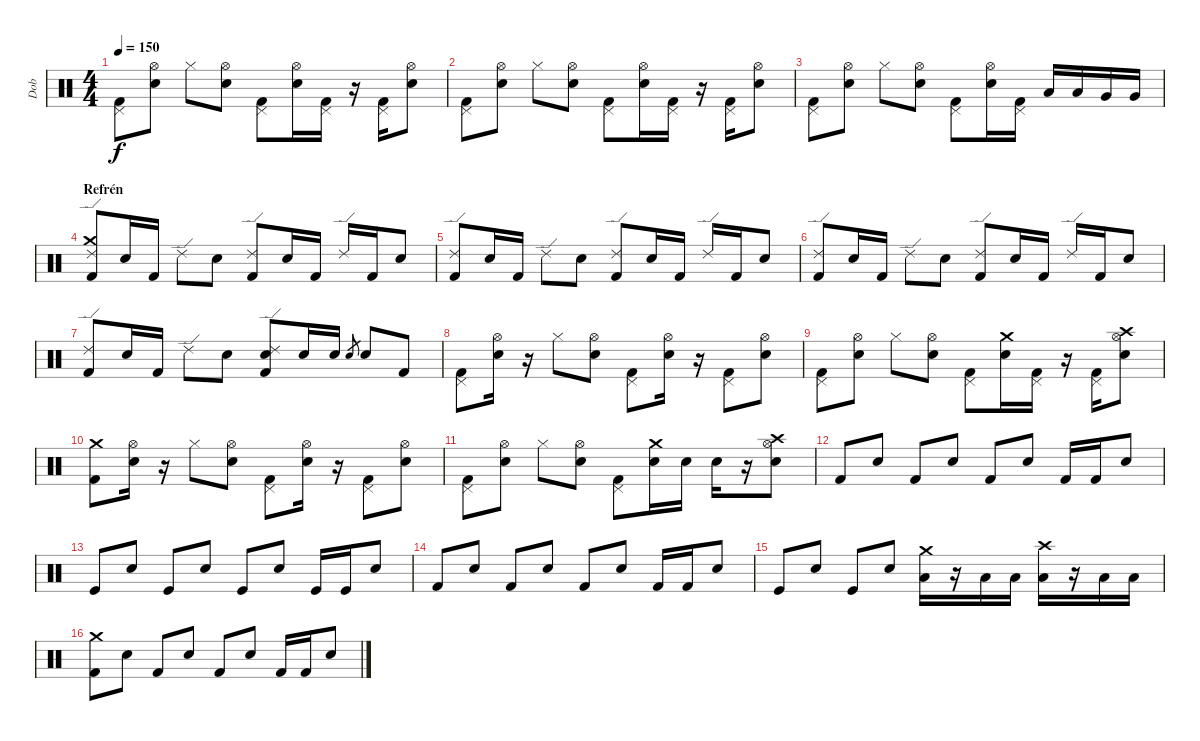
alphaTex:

\track ("Dob" "Dob") {instrument percussion}
\staff {score}
\articulation defaults
\ts (4 4)
\tempo 150
\clef neutral
\ks c
("Kick (hit) 2" "Pedal Hi-Hat (hit)").8{dy f} ("Snare (hit) 2" "Hi-Hat (open)").8 "Hi-Hat (closed)".8 ("Snare (hit) 2" "Hi-Hat (open)").8 ("Kick (hit) 2" "Pedal Hi-Hat (hit)").8 ("Snare (hit) 2" "Hi-Hat (open)").16 ("Kick (hit) 2" "Pedal Hi-Hat (hit)").16 r.16 ("Kick (hit) 2" "Pedal Hi-Hat (hit)").16 ("Snare (hit) 2" "Hi-Hat (open)").8 |
("Kick (hit) 2" "Pedal Hi-Hat (hit)").8 ("Snare (hit) 2" "Hi-Hat (open)").8 "Hi-Hat (closed)".8 ("Snare (hit) 2" "Hi-Hat (open)").8 ("Kick (hit) 2" "Pedal Hi-Hat (hit)").8 ("Snare (hit) 2" "Hi-Hat (open)").16 ("Kick (hit) 2" "Pedal Hi-Hat (hit)").16 r.16 ("Kick (hit) 2" "Pedal Hi-Hat (hit)").16 ("Snare (hit) 2" "Hi-Hat (open)").8 |
("Kick (hit) 2" "Pedal Hi-Hat (hit)").8 ("Snare (hit) 2" "Hi-Hat (open)").8 "Hi-Hat (closed)".8 ("Snare (hit) 2" "Hi-Hat (open)").8 ("Kick (hit) 2" "Pedal Hi-Hat (hit)").8 ("Snare (hit) 2" "Hi-Hat (open)").16 ("Kick (hit) 2" "Pedal Hi-Hat (hit)").16 "Low Tom (hit)".16 "Low Tom (hit)".16 "Very Low Tom (hit)".16 "Very Low Tom (hit)".16 |
\section ("" "Refrén")
("Kick (hit) 2" "Crash medium (hit)" "Ride (edge) 2").8 "Snare (hit) 2".16 "Kick (hit) 2".16 "Ride (edge) 2".8 "Snare (hit) 2".8 ("Kick (hit) 2" "Ride (edge) 2").8 "Snare (hit) 2".16 "Kick (hit) 2".16 "Ride (edge) 2".16 "Kick (hit) 2".16 "Snare (hit) 2".8 |
("Kick (hit) 2" "Ride (edge) 2").8 "Snare (hit) 2".16 "Kick (hit) 2".16 "Ride (edge) 2".8 "Snare (hit) 2".8 ("Kick (hit) 2" "Ride (edge) 2").8 "Snare (hit) 2".16 "Kick (hit) 2".16 "Ride (edge) 2".16 "Kick (hit) 2".16 "Snare (hit) 2".8 |
("Kick (hit) 2" "Ride (edge) 2").8 "Snare (hit) 2".16 "Kick (hit) 2".16 "Ride (edge) 2".8 "Snare (hit) 2".8 ("Kick (hit) 2" "Ride (edge) 2").8 "Snare (hit) 2".16 "Kick (hit) 2".16 "Ride (edge) 2".16 "Kick (hit) 2".16 "Snare (hit) 2".8 |
("Kick (hit) 2" "Ride (edge) 2").8 "Snare (hit) 2".16 "Kick (hit) 2".16 "Ride (edge) 2".8 "Snare (hit) 2".8 ("Kick (hit) 2" "Snare (hit) 2" "Ride (edge) 2").8 "Snare (hit) 2".16 "Snare (hit) 2".16 "Snare (hit) 2".8{gr} "Snare (hit) 2".8 "Kick (hit) 2".8 |
("Kick (hit) 2" "Pedal Hi-Hat (hit)").8 ("Snare (hit) 2" "Hi-Hat (open)").16 r.16 "Hi-Hat (closed)".8 ("Snare (hit) 2" "Hi-Hat (open)").8 ("Kick (hit) 2" "Pedal Hi-Hat (hit)").8 ("Snare (hit) 2" "Hi-Hat (open)").16 r.16 ("Kick (hit) 2" "Pedal Hi-Hat (hit)").8 ("Snare (hit) 2" "Hi-Hat (open)").8 |
("Kick (hit) 2" "Pedal Hi-Hat (hit)").8 ("Snare (hit) 2" "Hi-Hat (open)").8 "Hi-Hat (closed)".8 ("Snare (hit) 2" "Hi-Hat (open)").8 ("Kick (hit) 2" "Pedal Hi-Hat (hit)").8 ("Snare (hit) 2" "Crash medium (hit)").16 ("Kick (hit) 2" "Pedal Hi-Hat (hit)").16 r.16 ("Kick (hit) 2" "Pedal Hi-Hat (hit)").16 ("Snare (hit) 2" "Hi-Hat (open)" "Crash high (hit)").8 |
("Kick (hit) 2" "Crash medium (hit)").8 ("Snare (hit) 2" "Hi-Hat (open)").16 r.16 "Hi-Hat (closed)".8 ("Snare (hit) 2" "Hi-Hat (open)").8 ("Kick (hit) 2" "Pedal Hi-Hat (hit)").8 ("Snare (hit) 2" "Hi-Hat (open)").16 r.16 ("Kick (hit) 2" "Pedal Hi-Hat (hit)").8 ("Snare (hit) 2" "Hi-Hat (open)").8 |
("Kick (hit) 2" "Pedal Hi-Hat (hit)").8 ("Snare (hit) 2" "Hi-Hat (open)").8 "Hi-Hat (closed)".8 ("Snare (hit) 2" "Hi-Hat (open)").8 ("Kick (hit) 2" "Pedal Hi-Hat (hit)").8 ("Snare (hit) 2" "Crash medium (hit)").16 "Snare (hit) 2".16 "Snare (hit) 2".16 r.16 ("Snare (hit) 2" "Hi-Hat (open)" "Crash high (hit)").8 |
"Kick (hit) 2".8 "Snare (hit) 2".8 "Kick (hit) 2".8 "Snare (hit) 2".8 "Kick (hit) 2".8 "Snare (hit) 2".8 "Kick (hit) 2".16 "Kick (hit) 2".16 "Snare (hit) 2".8 |
"Kick (hit)".8 "Electric Snare (hit)".8 "Kick (hit)".8 "Electric Snare (hit)".8 "Kick (hit)".8 "Electric Snare (hit)".8 "Kick (hit)".16 "Kick (hit)".16 "Electric Snare (hit)".8 |
"Kick (hit) 2".8 "Snare (hit) 2".8 "Kick (hit) 2".8 "Snare (hit) 2".8 "Kick (hit) 2".8 "Snare (hit) 2".8 "Kick (hit) 2".16 "Kick (hit) 2".16 "Snare (hit) 2".8 |
"Kick (hit)".8 "Electric Snare (hit)".8 "Kick (hit)".8 "Electric Snare (hit)".8 ("Low Tom (hit)" "Crash medium (hit)").16 r.16 "Low Tom (hit)".16 "Low Tom (hit)".16 ("Low Floor Tom (hit)" "Crash high (hit)").16 r.16 "Low Floor Tom (hit)".16 "Low Floor Tom (hit)".16 |
("Kick (hit) 2" "Crash medium (hit)").8 "Snare (hit) 2".8 "Kick (hit) 2".8 "Snare (hit) 2".8 "Kick (hit) 2".8 "Snare (hit) 2".8 "Kick (hit) 2".16 "Kick (hit) 2".16 "Snare (hit) 2".8
